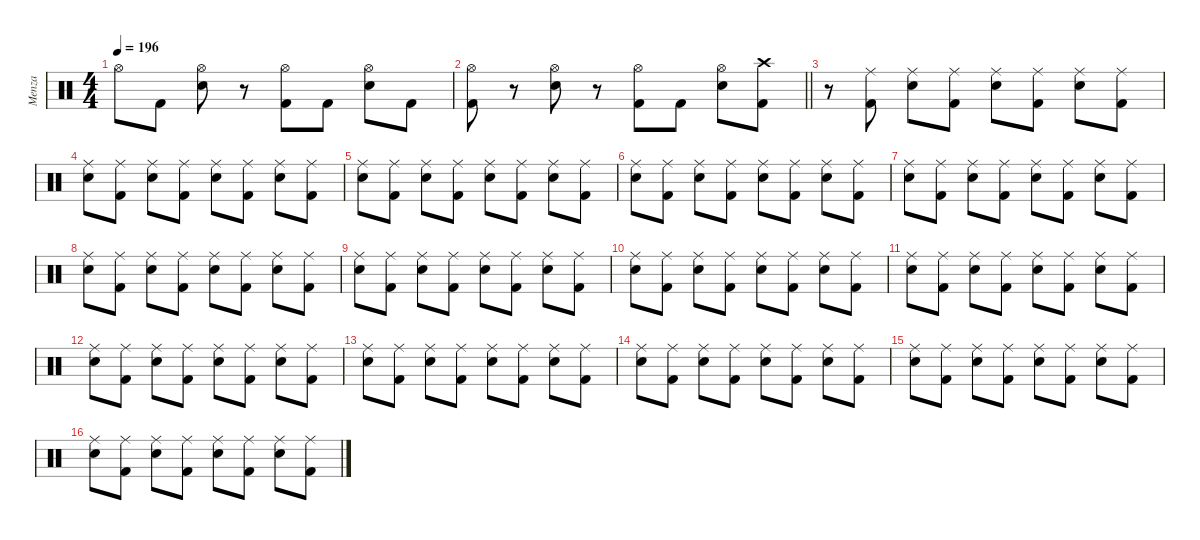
\defaultSystemsLayout 4
\hideDynamics
\bracketExtendMode nobrackets
\firstSystemTrackNameMode fullname
\otherSystemsTrackNameOrientation horizontal
\track ("Menza" "drm.") {instrument percussion}
\staff {score}
\articulation defaults
\ts (4 4)
\tempo 196
\clef neutral
\ks c "Hi-Hat (open)".8{dy f beam Down} "Kick (hit) 2".8{dy fff beam Down}
("Hi-Hat (open)" "Snare (hit) 2").8{dy f beam Down} r.8{beam Down} ("Hi-Hat (open)" "Kick (hit) 2").8{beam Down} "Kick (hit) 2".8{dy fff beam Down} ("Hi-Hat (open)" "Snare (hit) 2").8{dy f beam Down} "Kick (hit) 2".8{dy fff beam Down} |
\barLineRight lightlight
("Hi-Hat (open)" "Kick (hit) 2").8{dy f beam Down} r.8{beam Down} ("Hi-Hat (open)" "Snare (hit) 2").8{beam Down} r.8{beam Down} ("Hi-Hat (open)" "Kick (hit) 2").8{beam Down} "Kick (hit) 2".8{dy fff beam Down} ("Hi-Hat (open)" "Snare (hit) 2").8{dy f beam Down} ("Crash high (hit)" "Kick (hit) 2").8{dy fff beam Down} |
r.8{beam Down} ("Ride (middle)" "Kick (hit) 2").8{dy ff beam Down} ("Ride (middle)" "Snare (hit) 2").8{beam Down} ("Ride (middle)" "Kick (hit) 2").8{beam Down} ("Ride (middle)" "Snare (hit) 2").8{beam Down} ("Ride (middle)" "Kick (hit) 2").8{beam Down} ("Ride (middle)" "Snare (hit) 2").8{beam Down} ("Ride (middle)" "Kick (hit) 2").8{beam Down} |
("Ride (middle)" "Snare (hit) 2").8{beam Down} ("Ride (middle)" "Kick (hit) 2").8{beam Down} ("Ride (middle)" "Snare (hit) 2").8{beam Down} ("Ride (middle)" "Kick (hit) 2").8{beam Down} ("Ride (middle)" "Snare (hit) 2").8{beam Down} ("Ride (middle)" "Kick (hit) 2").8{beam Down} ("Ride (middle)" "Snare (hit) 2").8{beam Down} ("Ride (middle)" "Kick (hit) 2").8{beam Down} |
("Ride (middle)" "Snare (hit) 2").8{beam Down} ("Ride (middle)" "Kick (hit) 2").8{beam Down} ("Ride (middle)" "Snare (hit) 2").8{beam Down} ("Ride (middle)" "Kick (hit) 2").8{beam Down} ("Ride (middle)" "Snare (hit) 2").8{beam Down} ("Ride (middle)" "Kick (hit) 2").8{beam Down} ("Ride (middle)" "Snare (hit) 2").8{beam Down} ("Ride (middle)" "Kick (hit) 2").8{beam Down} |
("Ride (middle)" "Snare (hit) 2").8{beam Down} ("Ride (middle)" "Kick (hit) 2").8{beam Down} ("Ride (middle)" "Snare (hit) 2").8{beam Down} ("Ride (middle)" "Kick (hit) 2").8{beam Down} ("Ride (middle)" "Snare (hit) 2").8{beam Down} ("Ride (middle)" "Kick (hit) 2").8{beam Down} ("Ride (middle)" "Snare (hit) 2").8{beam Down} ("Ride (middle)" "Kick (hit) 2").8{beam Down} |
("Ride (middle)" "Snare (hit) 2").8{beam Down} ("Ride (middle)" "Kick (hit) 2").8{beam Down} ("Ride (middle)" "Snare (hit) 2").8{beam Down} ("Ride (middle)" "Kick (hit) 2").8{beam Down} ("Ride (middle)" "Snare (hit) 2").8{beam Down} ("Ride (middle)" "Kick (hit) 2").8{beam Down} ("Ride (middle)" "Snare (hit) 2").8{beam Down} ("Ride (middle)" "Kick (hit) 2").8{beam Down} |
("Ride (middle)" "Snare (hit) 2").8{beam Down} ("Ride (middle)" "Kick (hit) 2").8{beam Down} ("Ride (middle)" "Snare (hit) 2").8{beam Down} ("Ride (middle)" "Kick (hit) 2").8{beam Down} ("Ride (middle)" "Snare (hit) 2").8{beam Down} ("Ride (middle)" "Kick (hit) 2").8{beam Down} ("Ride (middle)" "Snare (hit) 2").8{beam Down} ("Ride (middle)" "Kick (hit) 2").8{beam Down} |
("Ride (middle)" "Snare (hit) 2").8{beam Down} ("Ride (middle)" "Kick (hit) 2").8{beam Down} ("Ride (middle)" "Snare (hit) 2").8{beam Down} ("Ride (middle)" "Kick (hit) 2").8{beam Down} ("Ride (middle)" "Snare (hit) 2").8{beam Down} ("Ride (middle)" "Kick (hit) 2").8{beam Down} ("Ride (middle)" "Snare (hit) 2").8{beam Down} ("Ride (middle)" "Kick (hit) 2").8{beam Down} |
("Ride (middle)" "Snare (hit) 2").8{beam Down} ("Ride (middle)" "Kick (hit) 2").8{beam Down} ("Ride (middle)" "Snare (hit) 2").8{beam Down} ("Ride (middle)" "Kick (hit) 2").8{beam Down} ("Ride (middle)" "Snare (hit) 2").8{beam Down} ("Ride (middle)" "Kick (hit) 2").8{beam Down} ("Ride (middle)" "Snare (hit) 2").8{beam Down} ("Ride (middle)" "Kick (hit) 2").8{beam Down} |
("Ride (middle)" "Snare (hit) 2").8{beam Down} ("Ride (middle)" "Kick (hit) 2").8{beam Down} ("Ride (middle)" "Snare (hit) 2").8{beam Down} ("Ride (middle)" "Kick (hit) 2").8{beam Down} ("Ride (middle)" "Snare (hit) 2").8{beam Down} ("Ride (middle)" "Kick (hit) 2").8{beam Down} ("Ride (middle)" "Snare (hit) 2").8{beam Down} ("Ride (middle)" "Kick (hit) 2").8{beam Down} |
("Ride (middle)" "Snare (hit) 2").8{beam Down} ("Ride (middle)" "Kick (hit) 2").8{beam Down} ("Ride (middle)" "Snare (hit) 2").8{beam Down} ("Ride (middle)" "Kick (hit) 2").8{beam Down} ("Ride (middle)" "Snare (hit) 2").8{beam Down} ("Ride (middle)" "Kick (hit) 2").8{beam Down} ("Ride (middle)" "Snare (hit) 2").8{beam Down} ("Ride (middle)" "Kick (hit) 2").8{beam Down} |
("Ride (middle)" "Snare (hit) 2").8{beam Down} ("Ride (middle)" "Kick (hit) 2").8{beam Down} ("Ride (middle)" "Snare (hit) 2").8{beam Down} ("Ride (middle)" "Kick (hit) 2").8{beam Down} ("Ride (middle)" "Snare (hit) 2").8{beam Down} ("Ride (middle)" "Kick (hit) 2").8{beam Down} ("Ride (middle)" "Snare (hit) 2").8{beam Down} ("Ride (middle)" "Kick (hit) 2").8{beam Down} |
("Ride (middle)" "Snare (hit) 2").8{beam Down} ("Ride (middle)" "Kick (hit) 2").8{beam Down} ("Ride (middle)" "Snare (hit) 2").8{beam Down} ("Ride (middle)" "Kick (hit) 2").8{beam Down} ("Ride (middle)" "Snare (hit) 2").8{beam Down} ("Ride (middle)" "Kick (hit) 2").8{beam Down} ("Ride (middle)" "Snare (hit) 2").8{beam Down} ("Ride (middle)" "Kick (hit) 2").8{beam Down} |
("Ride (middle)" "Snare (hit) 2").8{beam Down} ("Ride (middle)" "Kick (hit) 2").8{beam Down} ("Ride (middle)" "Snare (hit) 2").8{beam Down} ("Ride (middle)" "Kick (hit) 2").8{beam Down} ("Ride (middle)" "Snare (hit) 2").8{beam Down} ("Ride (middle)" "Kick (hit) 2").8{beam Down} ("Ride (middle)" "Snare (hit) 2").8{beam Down} ("Ride (middle)" "Kick (hit) 2").8{beam Down} |
("Ride (middle)" "Snare (hit) 2").8{beam Down} ("Ride (middle)" "Kick (hit) 2").8{beam Down} ("Ride (middle)" "Snare (hit) 2").8{beam Down} ("Ride (middle)" "Kick (hit) 2").8{beam Down} ("Ride (middle)" "Snare (hit) 2").8{beam Down} ("Ride (middle)" "Kick (hit) 2").8{beam Down} ("Ride (middle)" "Snare (hit) 2").8{beam Down} ("Ride (middle)" "Kick (hit) 2").8{beam Down}
